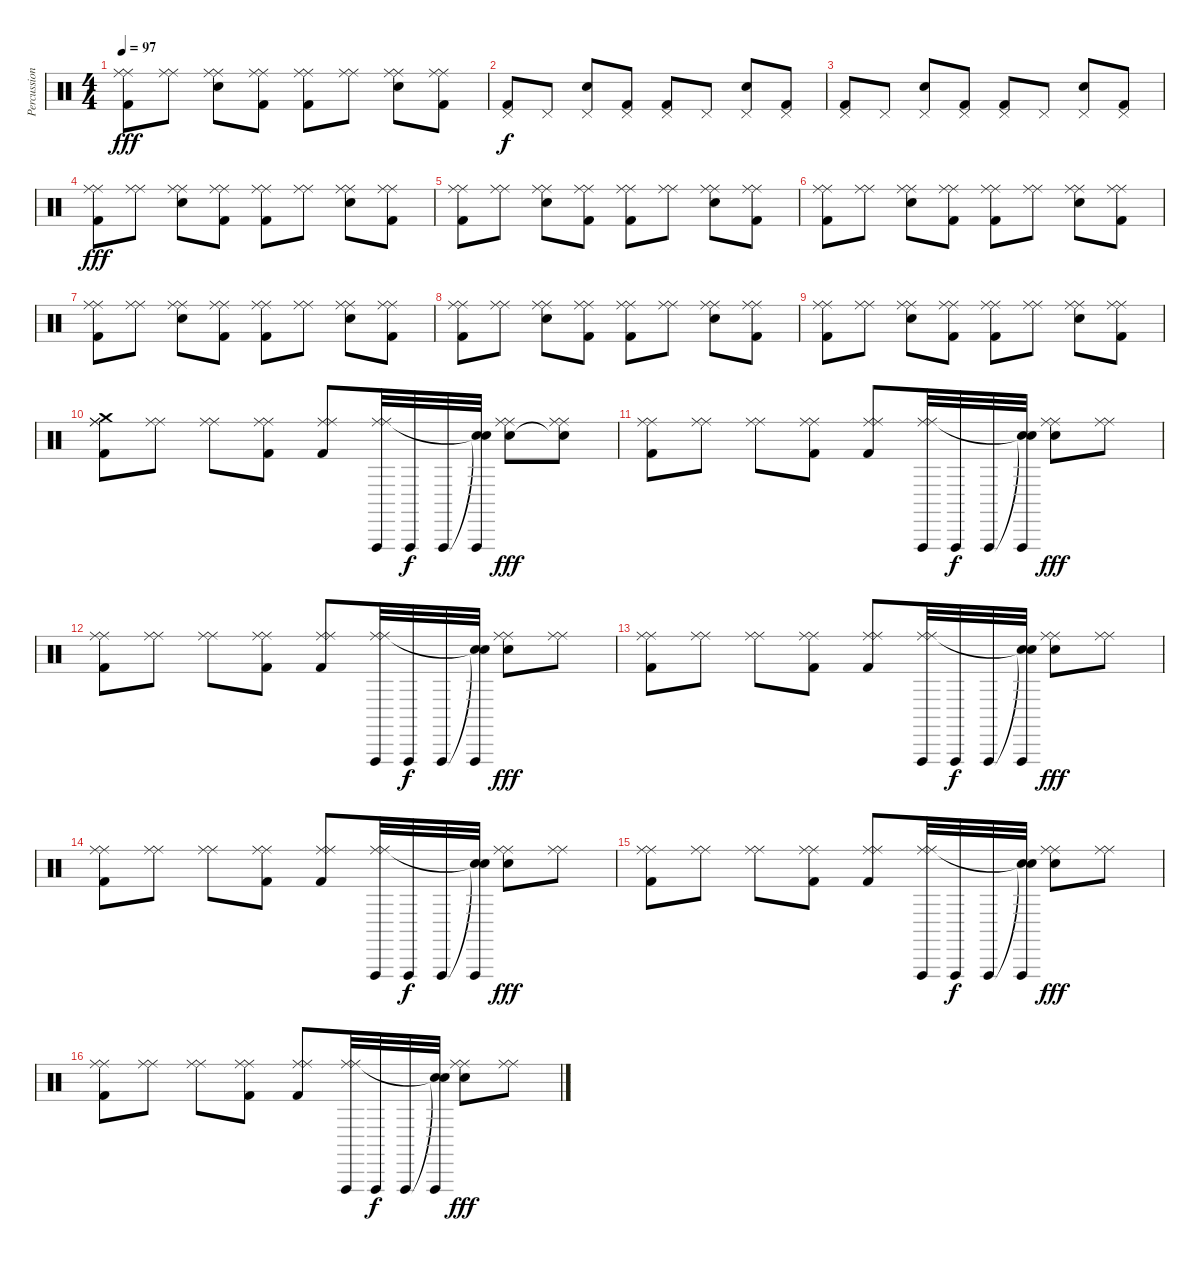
\track ("Percussions" "Percussion") {instrument percussion}
\staff {score}
\articulation defaults
\ts (4 4)
\tempo 97
\clef neutral
\ks c
("Ride (middle)" "Ride (middle)" "Kick (hit) 2").8{dy fff} ("Ride (middle)" "Ride (middle)").8 ("Ride (middle)" "Ride (middle)" "Electric Snare (hit)").8 ("Ride (middle)" "Ride (middle)" "Kick (hit) 2").8 ("Ride (middle)" "Ride (middle)" "Kick (hit) 2").8 ("Ride (middle)" "Ride (middle)").8 ("Ride (middle)" "Ride (middle)" "Electric Snare (hit)").8 ("Ride (middle)" "Ride (middle)" "Kick (hit) 2").8 |
("Pedal Hi-Hat (hit)" "Kick (hit) 2").8{dy f} "Pedal Hi-Hat (hit)".8 ("Pedal Hi-Hat (hit)" "Electric Snare (hit)").8 ("Pedal Hi-Hat (hit)" "Kick (hit) 2").8 ("Pedal Hi-Hat (hit)" "Kick (hit) 2").8 "Pedal Hi-Hat (hit)".8 ("Pedal Hi-Hat (hit)" "Electric Snare (hit)").8 ("Pedal Hi-Hat (hit)" "Kick (hit) 2").8 |
("Pedal Hi-Hat (hit)" "Kick (hit) 2").8 "Pedal Hi-Hat (hit)".8 ("Pedal Hi-Hat (hit)" "Electric Snare (hit)").8 ("Pedal Hi-Hat (hit)" "Kick (hit) 2").8 ("Pedal Hi-Hat (hit)" "Kick (hit) 2").8 "Pedal Hi-Hat (hit)".8 ("Pedal Hi-Hat (hit)" "Electric Snare (hit)").8 ("Pedal Hi-Hat (hit)" "Kick (hit) 2").8 |
("Ride (middle)" "Ride (middle)" "Kick (hit) 2").8{dy fff} ("Ride (middle)" "Ride (middle)").8 ("Ride (middle)" "Ride (middle)" "Electric Snare (hit)").8 ("Ride (middle)" "Ride (middle)" "Kick (hit) 2").8 ("Ride (middle)" "Ride (middle)" "Kick (hit) 2").8 ("Ride (middle)" "Ride (middle)").8 ("Ride (middle)" "Ride (middle)" "Electric Snare (hit)").8 ("Ride (middle)" "Ride (middle)" "Kick (hit) 2").8 |
("Ride (middle)" "Ride (middle)" "Kick (hit) 2").8 ("Ride (middle)" "Ride (middle)").8 ("Ride (middle)" "Ride (middle)" "Electric Snare (hit)").8 ("Ride (middle)" "Ride (middle)" "Kick (hit) 2").8 ("Ride (middle)" "Ride (middle)" "Kick (hit) 2").8 ("Ride (middle)" "Ride (middle)").8 ("Ride (middle)" "Ride (middle)" "Electric Snare (hit)").8 ("Ride (middle)" "Ride (middle)" "Kick (hit) 2").8 |
("Ride (middle)" "Ride (middle)" "Kick (hit) 2").8 ("Ride (middle)" "Ride (middle)").8 ("Ride (middle)" "Ride (middle)" "Electric Snare (hit)").8 ("Ride (middle)" "Ride (middle)" "Kick (hit) 2").8 ("Ride (middle)" "Ride (middle)" "Kick (hit) 2").8 ("Ride (middle)" "Ride (middle)").8 ("Ride (middle)" "Ride (middle)" "Electric Snare (hit)").8 ("Ride (middle)" "Ride (middle)" "Kick (hit) 2").8 |
("Ride (middle)" "Ride (middle)" "Kick (hit) 2").8 ("Ride (middle)" "Ride (middle)").8 ("Ride (middle)" "Ride (middle)" "Electric Snare (hit)").8 ("Ride (middle)" "Ride (middle)" "Kick (hit) 2").8 ("Ride (middle)" "Ride (middle)" "Kick (hit) 2").8 ("Ride (middle)" "Ride (middle)").8 ("Ride (middle)" "Ride (middle)" "Electric Snare (hit)").8 ("Ride (middle)" "Ride (middle)" "Kick (hit) 2").8 |
("Ride (middle)" "Ride (middle)" "Kick (hit) 2").8 ("Ride (middle)" "Ride (middle)").8 ("Ride (middle)" "Ride (middle)" "Electric Snare (hit)").8 ("Ride (middle)" "Ride (middle)" "Kick (hit) 2").8 ("Ride (middle)" "Ride (middle)" "Kick (hit) 2").8 ("Ride (middle)" "Ride (middle)").8 ("Ride (middle)" "Ride (middle)" "Electric Snare (hit)").8 ("Ride (middle)" "Ride (middle)" "Kick (hit) 2").8 |
("Ride (middle)" "Ride (middle)" "Kick (hit) 2").8 ("Ride (middle)" "Ride (middle)").8 ("Ride (middle)" "Ride (middle)" "Electric Snare (hit)").8 ("Ride (middle)" "Ride (middle)" "Kick (hit) 2").8 ("Ride (middle)" "Ride (middle)" "Kick (hit) 2").8 ("Ride (middle)" "Ride (middle)").8 ("Ride (middle)" "Ride (middle)" "Electric Snare (hit)").8 ("Ride (middle)" "Ride (middle)" "Kick (hit) 2").8 |
("Ride (middle)" "Ride (middle)" "Kick (hit) 2" "Crash medium (hit)").8 ("Ride (middle)" "Ride (middle)").8 ("Ride (middle)" "Ride (middle)").8 ("Ride (middle)" "Ride (middle)" "Kick (hit) 2").8 ("Ride (middle)" "Ride (middle)" "Kick (hit) 2").8 ("Ride (middle)" "Ride (middle)" "Vibraslap (hit)").32 "Vibraslap (hit)".32{dy f} "Vibraslap (hit)".32 ("Snare (hit)"{t} "Snare (hit)"{t} "Vibraslap (hit)").32 ("Ride (middle)" "Ride (middle)" "Electric Snare (hit)").8{dy fff} ("Ride (middle)" "Ride (middle)" "Snare (hit)"{t}).8 |
("Ride (middle)" "Ride (middle)" "Kick (hit) 2").8 ("Ride (middle)" "Ride (middle)").8 ("Ride (middle)" "Ride (middle)").8 ("Ride (middle)" "Ride (middle)" "Kick (hit) 2").8 ("Ride (middle)" "Ride (middle)" "Kick (hit) 2").8 ("Ride (middle)" "Ride (middle)" "Vibraslap (hit)").32 "Vibraslap (hit)".32{dy f} "Vibraslap (hit)".32 ("Snare (hit)"{t} "Snare (hit)"{t} "Vibraslap (hit)").32 ("Ride (middle)" "Ride (middle)" "Electric Snare (hit)").8{dy fff} ("Ride (middle)" "Ride (middle)").8 |
("Ride (middle)" "Ride (middle)" "Kick (hit) 2").8 ("Ride (middle)" "Ride (middle)").8 ("Ride (middle)" "Ride (middle)").8 ("Ride (middle)" "Ride (middle)" "Kick (hit) 2").8 ("Ride (middle)" "Ride (middle)" "Kick (hit) 2").8 ("Ride (middle)" "Ride (middle)" "Vibraslap (hit)").32 "Vibraslap (hit)".32{dy f} "Vibraslap (hit)".32 ("Snare (hit)"{t} "Snare (hit)"{t} "Vibraslap (hit)").32 ("Ride (middle)" "Ride (middle)" "Electric Snare (hit)").8{dy fff} ("Ride (middle)" "Ride (middle)").8 |
("Ride (middle)" "Ride (middle)" "Kick (hit) 2").8 ("Ride (middle)" "Ride (middle)").8 ("Ride (middle)" "Ride (middle)").8 ("Ride (middle)" "Ride (middle)" "Kick (hit) 2").8 ("Ride (middle)" "Ride (middle)" "Kick (hit) 2").8 ("Ride (middle)" "Ride (middle)" "Vibraslap (hit)").32 "Vibraslap (hit)".32{dy f} "Vibraslap (hit)".32 ("Snare (hit)"{t} "Snare (hit)"{t} "Vibraslap (hit)").32 ("Ride (middle)" "Ride (middle)" "Electric Snare (hit)").8{dy fff} ("Ride (middle)" "Ride (middle)").8 |
("Ride (middle)" "Ride (middle)" "Kick (hit) 2").8 ("Ride (middle)" "Ride (middle)").8 ("Ride (middle)" "Ride (middle)").8 ("Ride (middle)" "Ride (middle)" "Kick (hit) 2").8 ("Ride (middle)" "Ride (middle)" "Kick (hit) 2").8 ("Ride (middle)" "Ride (middle)" "Vibraslap (hit)").32 "Vibraslap (hit)".32{dy f} "Vibraslap (hit)".32 ("Snare (hit)"{t} "Snare (hit)"{t} "Vibraslap (hit)").32 ("Ride (middle)" "Ride (middle)" "Electric Snare (hit)").8{dy fff} ("Ride (middle)" "Ride (middle)").8 |
("Ride (middle)" "Ride (middle)" "Kick (hit) 2").8 ("Ride (middle)" "Ride (middle)").8 ("Ride (middle)" "Ride (middle)").8 ("Ride (middle)" "Ride (middle)" "Kick (hit) 2").8 ("Ride (middle)" "Ride (middle)" "Kick (hit) 2").8 ("Ride (middle)" "Ride (middle)" "Vibraslap (hit)").32 "Vibraslap (hit)".32{dy f} "Vibraslap (hit)".32 ("Snare (hit)"{t} "Snare (hit)"{t} "Vibraslap (hit)").32 ("Ride (middle)" "Ride (middle)" "Electric Snare (hit)").8{dy fff} ("Ride (middle)" "Ride (middle)").8 |
("Ride (middle)" "Ride (middle)" "Kick (hit) 2").8 ("Ride (middle)" "Ride (middle)").8 ("Ride (middle)" "Ride (middle)").8 ("Ride (middle)" "Ride (middle)" "Kick (hit) 2").8 ("Ride (middle)" "Ride (middle)" "Kick (hit) 2").8 ("Ride (middle)" "Ride (middle)" "Vibraslap (hit)").32 "Vibraslap (hit)".32{dy f} "Vibraslap (hit)".32 ("Snare (hit)"{t} "Snare (hit)"{t} "Vibraslap (hit)").32 ("Ride (middle)" "Ride (middle)" "Electric Snare (hit)").8{dy fff} ("Ride (middle)" "Ride (middle)").8
